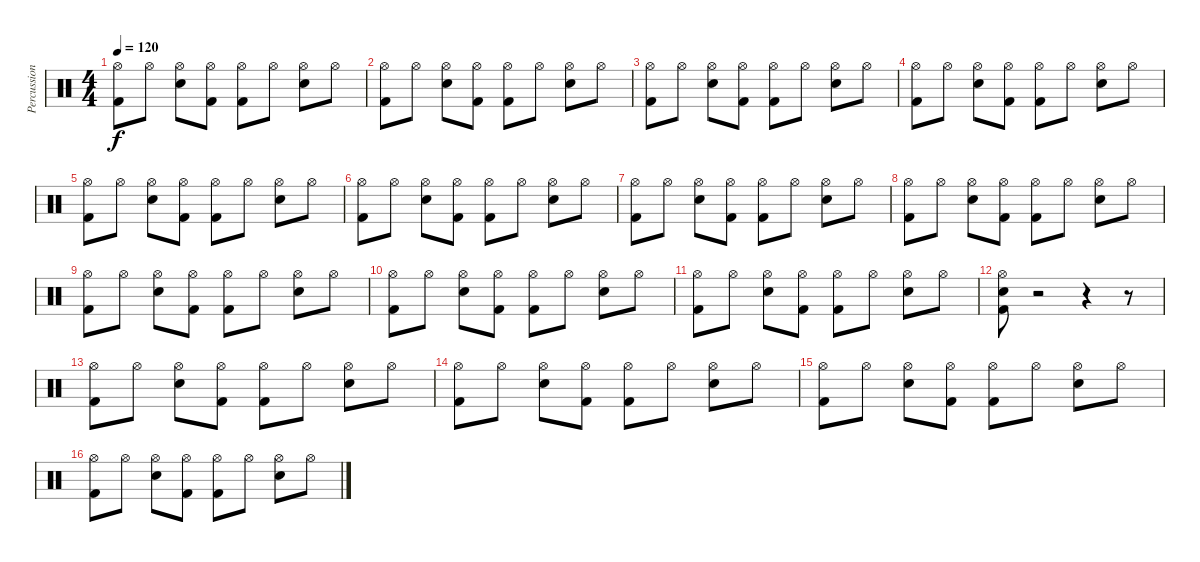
\track ("Percussion" "Percussion") {instrument percussion}
\staff {score}
\articulation defaults
\ts (4 4)
\tempo 120
\clef neutral
\ks c
("Hi-Hat (open)" "Kick (hit) 2").8{dy f} "Hi-Hat (open)".8 ("Hi-Hat (open)" "Snare (hit) 2").8 ("Hi-Hat (open)" "Kick (hit) 2").8 ("Hi-Hat (open)" "Kick (hit) 2").8 "Hi-Hat (open)".8 ("Hi-Hat (open)" "Snare (hit) 2").8 "Hi-Hat (open)".8 |
("Hi-Hat (open)" "Kick (hit) 2").8 "Hi-Hat (open)".8 ("Hi-Hat (open)" "Snare (hit) 2").8 ("Hi-Hat (open)" "Kick (hit) 2").8 ("Hi-Hat (open)" "Kick (hit) 2").8 "Hi-Hat (open)".8 ("Hi-Hat (open)" "Snare (hit) 2").8 "Hi-Hat (open)".8 |
("Hi-Hat (open)" "Kick (hit) 2").8 "Hi-Hat (open)".8 ("Hi-Hat (open)" "Snare (hit) 2").8 ("Hi-Hat (open)" "Kick (hit) 2").8 ("Hi-Hat (open)" "Kick (hit) 2").8 "Hi-Hat (open)".8 ("Hi-Hat (open)" "Snare (hit) 2").8 "Hi-Hat (open)".8 |
("Hi-Hat (open)" "Kick (hit) 2").8 "Hi-Hat (open)".8 ("Hi-Hat (open)" "Snare (hit) 2").8 ("Hi-Hat (open)" "Kick (hit) 2").8 ("Hi-Hat (open)" "Kick (hit) 2").8 "Hi-Hat (open)".8 ("Hi-Hat (open)" "Snare (hit) 2").8 "Hi-Hat (open)".8 |
("Hi-Hat (open)" "Kick (hit) 2").8 "Hi-Hat (open)".8 ("Hi-Hat (open)" "Snare (hit) 2").8 ("Hi-Hat (open)" "Kick (hit) 2").8 ("Hi-Hat (open)" "Kick (hit) 2").8 "Hi-Hat (open)".8 ("Hi-Hat (open)" "Snare (hit) 2").8 "Hi-Hat (open)".8 |
("Hi-Hat (open)" "Kick (hit) 2").8 "Hi-Hat (open)".8 ("Hi-Hat (open)" "Snare (hit) 2").8 ("Hi-Hat (open)" "Kick (hit) 2").8 ("Hi-Hat (open)" "Kick (hit) 2").8 "Hi-Hat (open)".8 ("Hi-Hat (open)" "Snare (hit) 2").8 "Hi-Hat (open)".8 |
("Hi-Hat (open)" "Kick (hit) 2").8 "Hi-Hat (open)".8 ("Hi-Hat (open)" "Snare (hit) 2").8 ("Hi-Hat (open)" "Kick (hit) 2").8 ("Hi-Hat (open)" "Kick (hit) 2").8 "Hi-Hat (open)".8 ("Hi-Hat (open)" "Snare (hit) 2").8 "Hi-Hat (open)".8 |
("Hi-Hat (open)" "Kick (hit) 2").8 "Hi-Hat (open)".8 ("Hi-Hat (open)" "Snare (hit) 2").8 ("Hi-Hat (open)" "Kick (hit) 2").8 ("Hi-Hat (open)" "Kick (hit) 2").8 "Hi-Hat (open)".8 ("Hi-Hat (open)" "Snare (hit) 2").8 "Hi-Hat (open)".8 |
("Hi-Hat (open)" "Kick (hit) 2").8 "Hi-Hat (open)".8 ("Hi-Hat (open)" "Snare (hit) 2").8 ("Hi-Hat (open)" "Kick (hit) 2").8 ("Hi-Hat (open)" "Kick (hit) 2").8 "Hi-Hat (open)".8 ("Hi-Hat (open)" "Snare (hit) 2").8 "Hi-Hat (open)".8 |
("Hi-Hat (open)" "Kick (hit) 2").8 "Hi-Hat (open)".8 ("Hi-Hat (open)" "Snare (hit) 2").8 ("Hi-Hat (open)" "Kick (hit) 2").8 ("Hi-Hat (open)" "Kick (hit) 2").8 "Hi-Hat (open)".8 ("Hi-Hat (open)" "Snare (hit) 2").8 "Hi-Hat (open)".8 |
("Hi-Hat (open)" "Kick (hit) 2").8 "Hi-Hat (open)".8 ("Hi-Hat (open)" "Snare (hit) 2").8 ("Hi-Hat (open)" "Kick (hit) 2").8 ("Hi-Hat (open)" "Kick (hit) 2").8 "Hi-Hat (open)".8 ("Hi-Hat (open)" "Snare (hit) 2").8 "Hi-Hat (open)".8 |
("Hi-Hat (open)" "Snare (hit) 2" "Kick (hit) 2").8 r.2 r.4 r.8 |
("Hi-Hat (open)" "Kick (hit) 2").8 "Hi-Hat (open)".8 ("Hi-Hat (open)" "Snare (hit) 2").8 ("Hi-Hat (open)" "Kick (hit) 2").8 ("Hi-Hat (open)" "Kick (hit) 2").8 "Hi-Hat (open)".8 ("Hi-Hat (open)" "Snare (hit) 2").8 "Hi-Hat (open)".8 |
("Hi-Hat (open)" "Kick (hit) 2").8 "Hi-Hat (open)".8 ("Hi-Hat (open)" "Snare (hit) 2").8 ("Hi-Hat (open)" "Kick (hit) 2").8 ("Hi-Hat (open)" "Kick (hit) 2").8 "Hi-Hat (open)".8 ("Hi-Hat (open)" "Snare (hit) 2").8 "Hi-Hat (open)".8 |
("Hi-Hat (open)" "Kick (hit) 2").8 "Hi-Hat (open)".8 ("Hi-Hat (open)" "Snare (hit) 2").8 ("Hi-Hat (open)" "Kick (hit) 2").8 ("Hi-Hat (open)" "Kick (hit) 2").8 "Hi-Hat (open)".8 ("Hi-Hat (open)" "Snare (hit) 2").8 "Hi-Hat (open)".8 |
("Hi-Hat (open)" "Kick (hit) 2").8 "Hi-Hat (open)".8 ("Hi-Hat (open)" "Snare (hit) 2").8 ("Hi-Hat (open)" "Kick (hit) 2").8 ("Hi-Hat (open)" "Kick (hit) 2").8 "Hi-Hat (open)".8 ("Hi-Hat (open)" "Snare (hit) 2").8 "Hi-Hat (open)".8
